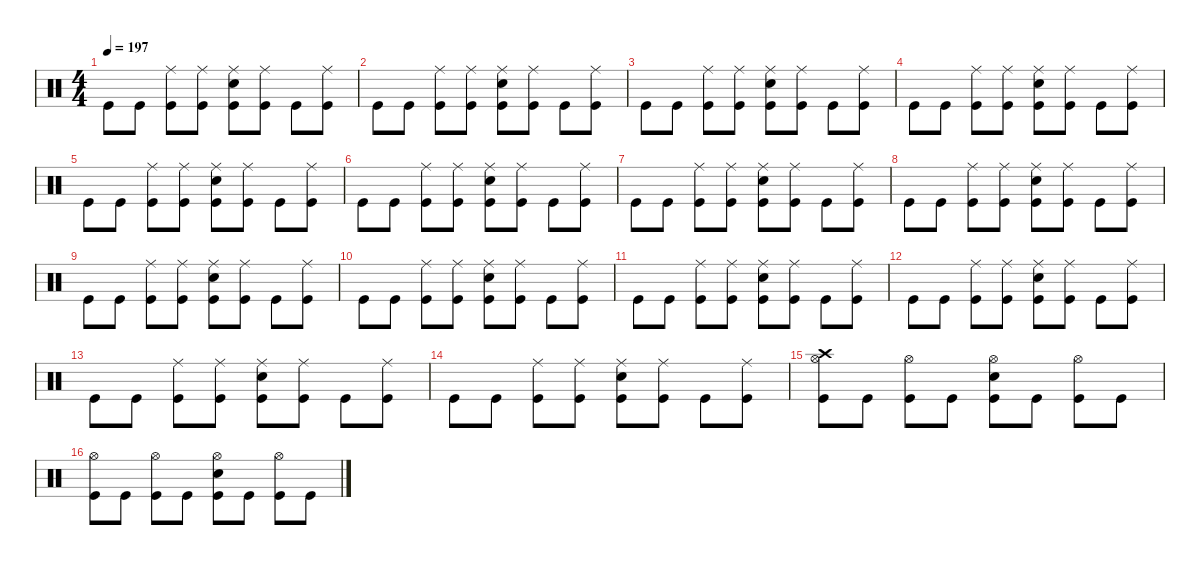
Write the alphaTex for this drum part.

\defaultSystemsLayout 4
\hideDynamics
\bracketExtendMode nobrackets
\singleTrackTrackNamePolicy hidden
\multiTrackTrackNamePolicy hidden
\firstSystemTrackNameMode fullname
\firstSystemTrackNameOrientation horizontal
\otherSystemsTrackNameOrientation horizontal
\track ("Drums" "drm.") {defaultSystemsLayout 4 instrument percussion}
\staff {score}
\articulation defaults
\ts (4 4)
\tempo 197
\clef neutral
\ks c "Kick (hit)".8{dy f beam Down} "Kick (hit)".8{beam Down}
("Ride (middle)" "Kick (hit)").8{beam Down} ("Ride (middle)" "Kick (hit)").8{beam Down} ("Ride (middle)" "Snare (hit) 2" "Kick (hit)").8{beam Down} ("Ride (middle)" "Kick (hit)").8{beam Down} "Kick (hit)".8{beam Down} ("Ride (middle)" "Kick (hit)").8{beam Down} |
"Kick (hit)".8{beam Down} "Kick (hit)".8{beam Down} ("Ride (middle)" "Kick (hit)").8{beam Down} ("Ride (middle)" "Kick (hit)").8{beam Down} ("Ride (middle)" "Snare (hit) 2" "Kick (hit)").8{beam Down} ("Ride (middle)" "Kick (hit)").8{beam Down} "Kick (hit)".8{beam Down} ("Ride (middle)" "Kick (hit)").8{beam Down} |
"Kick (hit)".8{beam Down} "Kick (hit)".8{beam Down} ("Ride (middle)" "Kick (hit)").8{beam Down} ("Ride (middle)" "Kick (hit)").8{beam Down} ("Ride (middle)" "Snare (hit) 2" "Kick (hit)").8{beam Down} ("Ride (middle)" "Kick (hit)").8{beam Down} "Kick (hit)".8{beam Down} ("Ride (middle)" "Kick (hit)").8{beam Down} |
"Kick (hit)".8{beam Down} "Kick (hit)".8{beam Down} ("Ride (middle)" "Kick (hit)").8{beam Down} ("Ride (middle)" "Kick (hit)").8{beam Down} ("Ride (middle)" "Snare (hit) 2" "Kick (hit)").8{beam Down} ("Ride (middle)" "Kick (hit)").8{beam Down} "Kick (hit)".8{beam Down} ("Ride (middle)" "Kick (hit)").8{beam Down} |
"Kick (hit)".8{beam Down} "Kick (hit)".8{beam Down} ("Ride (middle)" "Kick (hit)").8{beam Down} ("Ride (middle)" "Kick (hit)").8{beam Down} ("Ride (middle)" "Snare (hit) 2" "Kick (hit)").8{beam Down} ("Ride (middle)" "Kick (hit)").8{beam Down} "Kick (hit)".8{beam Down} ("Ride (middle)" "Kick (hit)").8{beam Down} |
"Kick (hit)".8{beam Down} "Kick (hit)".8{beam Down} ("Ride (middle)" "Kick (hit)").8{beam Down} ("Ride (middle)" "Kick (hit)").8{beam Down} ("Ride (middle)" "Snare (hit) 2" "Kick (hit)").8{beam Down} ("Ride (middle)" "Kick (hit)").8{beam Down} "Kick (hit)".8{beam Down} ("Ride (middle)" "Kick (hit)").8{beam Down} |
"Kick (hit)".8{beam Down} "Kick (hit)".8{beam Down} ("Ride (middle)" "Kick (hit)").8{beam Down} ("Ride (middle)" "Kick (hit)").8{beam Down} ("Ride (middle)" "Snare (hit) 2" "Kick (hit)").8{beam Down} ("Ride (middle)" "Kick (hit)").8{beam Down} "Kick (hit)".8{beam Down} ("Ride (middle)" "Kick (hit)").8{beam Down} |
"Kick (hit)".8{beam Down} "Kick (hit)".8{beam Down} ("Ride (middle)" "Kick (hit)").8{beam Down} ("Ride (middle)" "Kick (hit)").8{beam Down} ("Ride (middle)" "Snare (hit) 2" "Kick (hit)").8{beam Down} ("Ride (middle)" "Kick (hit)").8{beam Down} "Kick (hit)".8{beam Down} ("Ride (middle)" "Kick (hit)").8{beam Down} |
"Kick (hit)".8{beam Down} "Kick (hit)".8{beam Down} ("Ride (middle)" "Kick (hit)").8{beam Down} ("Ride (middle)" "Kick (hit)").8{beam Down} ("Ride (middle)" "Snare (hit) 2" "Kick (hit)").8{beam Down} ("Ride (middle)" "Kick (hit)").8{beam Down} "Kick (hit)".8{beam Down} ("Ride (middle)" "Kick (hit)").8{beam Down} |
"Kick (hit)".8{beam Down} "Kick (hit)".8{beam Down} ("Ride (middle)" "Kick (hit)").8{beam Down} ("Ride (middle)" "Kick (hit)").8{beam Down} ("Ride (middle)" "Snare (hit) 2" "Kick (hit)").8{beam Down} ("Ride (middle)" "Kick (hit)").8{beam Down} "Kick (hit)".8{beam Down} ("Ride (middle)" "Kick (hit)").8{beam Down} |
"Kick (hit)".8{beam Down} "Kick (hit)".8{beam Down} ("Ride (middle)" "Kick (hit)").8{beam Down} ("Ride (middle)" "Kick (hit)").8{beam Down} ("Ride (middle)" "Snare (hit) 2" "Kick (hit)").8{beam Down} ("Ride (middle)" "Kick (hit)").8{beam Down} "Kick (hit)".8{beam Down} ("Ride (middle)" "Kick (hit)").8{beam Down} |
"Kick (hit)".8{beam Down} "Kick (hit)".8{beam Down} ("Ride (middle)" "Kick (hit)").8{beam Down} ("Ride (middle)" "Kick (hit)").8{beam Down} ("Ride (middle)" "Snare (hit) 2" "Kick (hit)").8{beam Down} ("Ride (middle)" "Kick (hit)").8{beam Down} "Kick (hit)".8{beam Down} ("Ride (middle)" "Kick (hit)").8{beam Down} |
"Kick (hit)".8{beam Down} "Kick (hit)".8{beam Down} ("Ride (middle)" "Kick (hit)").8{beam Down} ("Ride (middle)" "Kick (hit)").8{beam Down} ("Ride (middle)" "Snare (hit) 2" "Kick (hit)").8{beam Down} ("Ride (middle)" "Kick (hit)").8{beam Down} "Kick (hit)".8{beam Down} ("Ride (middle)" "Kick (hit)").8{beam Down} |
"Kick (hit)".8{beam Down} "Kick (hit)".8{beam Down} ("Ride (middle)" "Kick (hit)").8{beam Down} ("Ride (middle)" "Kick (hit)").8{beam Down} ("Ride (middle)" "Snare (hit) 2" "Kick (hit)").8{beam Down} ("Ride (middle)" "Kick (hit)").8{beam Down} "Kick (hit)".8{beam Down} ("Ride (middle)" "Kick (hit)").8{beam Down} |
("Crash high (hit)" "Hi-Hat (open)" "Kick (hit)").8{beam Down} "Kick (hit)".8{beam Down} ("Hi-Hat (open)" "Kick (hit)").8{beam Down} "Kick (hit)".8{beam Down} ("Hi-Hat (open)" "Snare (hit) 2" "Kick (hit)").8{beam Down} "Kick (hit)".8{beam Down} ("Hi-Hat (open)" "Kick (hit)").8{beam Down} "Kick (hit)".8{beam Down} |
("Hi-Hat (open)" "Kick (hit)").8{beam Down} "Kick (hit)".8{beam Down} ("Hi-Hat (open)" "Kick (hit)").8{beam Down} "Kick (hit)".8{beam Down} ("Hi-Hat (open)" "Snare (hit) 2" "Kick (hit)").8{beam Down} "Kick (hit)".8{beam Down} ("Hi-Hat (open)" "Kick (hit)").8{beam Down} "Kick (hit)".8{beam Down}
